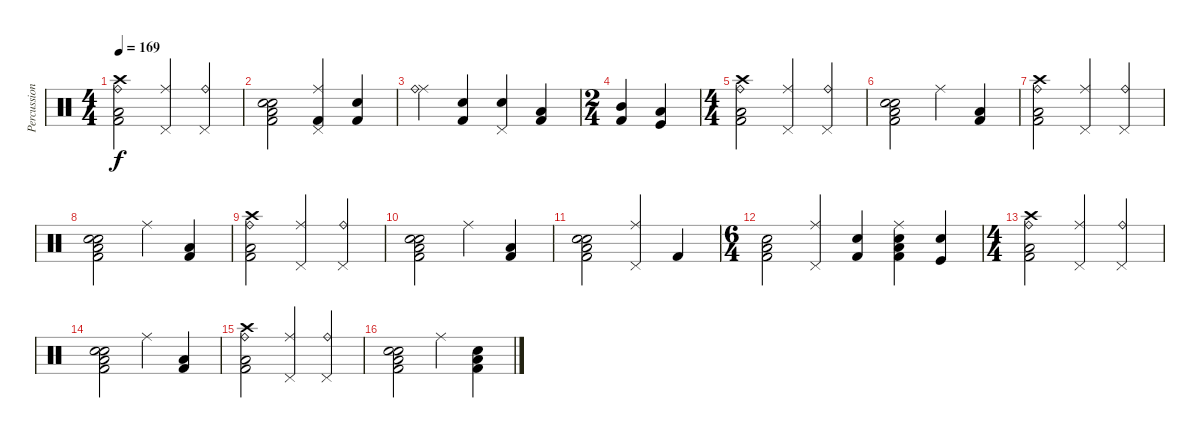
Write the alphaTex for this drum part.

\track ("Percussions" "Percussion") {instrument percussion}
\staff {score}
\articulation defaults
\ts (4 4)
\tempo 169
\clef neutral
\ks c
("Ride (bell)" "Crash high (hit)" "Low Tom (hit)" "Kick (hit) 2").2{dy f} ("Ride (middle)" "Pedal Hi-Hat (hit)").4 ("Pedal Hi-Hat (hit)" "Ride (bell)").4 |
("Kick (hit) 2" "Low Tom (hit)" "Snare (hit) 2" "Electric Snare (hit)").2 ("Ride (middle)" "Pedal Hi-Hat (hit)" "Kick (hit) 2").4 ("Kick (hit) 2" "Electric Snare (hit)").4 |
("Ride (middle)" "Ride (bell)").4 ("Kick (hit) 2" "Electric Snare (hit)").4 ("Pedal Hi-Hat (hit)" "Snare (hit) 2").4 ("Low Tom (hit)" "Kick (hit) 2").4 |
\ts (2 4)
("Mid Tom (hit)" "Kick (hit) 2").4 ("Low Tom (hit)" "Kick (hit)").4 |
\ts (4 4)
("Ride (bell)" "Crash high (hit)" "Low Tom (hit)" "Kick (hit) 2").2 ("Ride (middle)" "Pedal Hi-Hat (hit)").4 ("Pedal Hi-Hat (hit)" "Ride (bell)").4 |
("Kick (hit) 2" "Low Tom (hit)" "Snare (hit) 2" "Electric Snare (hit)").2 "Ride (middle)".4 ("Low Tom (hit)" "Kick (hit) 2").4 |
("Ride (bell)" "Crash high (hit)" "Low Tom (hit)" "Kick (hit) 2").2 ("Ride (middle)" "Pedal Hi-Hat (hit)").4 ("Pedal Hi-Hat (hit)" "Ride (bell)").4 |
("Kick (hit) 2" "Low Tom (hit)" "Snare (hit) 2" "Electric Snare (hit)").2 "Ride (middle)".4 ("Low Tom (hit)" "Kick (hit) 2").4 |
("Ride (bell)" "Crash high (hit)" "Low Tom (hit)" "Kick (hit) 2").2 ("Ride (middle)" "Pedal Hi-Hat (hit)").4 ("Pedal Hi-Hat (hit)" "Ride (bell)").4 |
("Kick (hit) 2" "Low Tom (hit)" "Snare (hit) 2" "Electric Snare (hit)").2 "Ride (middle)".4 ("Low Tom (hit)" "Kick (hit) 2").4 |
("Snare (hit) 2" "Electric Snare (hit)" "Low Tom (hit)" "Kick (hit) 2").2 ("Ride (middle)" "Pedal Hi-Hat (hit)").4 "Kick (hit) 2".4 |
\ts (6 4)
("Kick (hit) 2" "Low Tom (hit)" "Snare (hit) 2").2 ("Pedal Hi-Hat (hit)" "Ride (middle)").4 ("Electric Snare (hit)" "Kick (hit) 2").4 ("Kick (hit) 2" "Low Tom (hit)" "Snare (hit) 2" "Ride (middle)").4 ("Electric Snare (hit)" "Kick (hit)").4 |
\ts (4 4)
("Ride (bell)" "Crash high (hit)" "Low Tom (hit)" "Kick (hit) 2").2 ("Ride (middle)" "Pedal Hi-Hat (hit)").4 ("Pedal Hi-Hat (hit)" "Ride (bell)").4 |
("Kick (hit) 2" "Low Tom (hit)" "Snare (hit) 2" "Electric Snare (hit)").2 "Ride (middle)".4 ("Low Tom (hit)" "Kick (hit) 2").4 |
("Ride (bell)" "Crash high (hit)" "Low Tom (hit)" "Kick (hit) 2").2 ("Ride (middle)" "Pedal Hi-Hat (hit)").4 ("Pedal Hi-Hat (hit)" "Ride (bell)").4 |
("Kick (hit) 2" "Low Tom (hit)" "Snare (hit) 2" "Electric Snare (hit)").2 "Ride (middle)".4 ("Snare (hit) 2" "Low Tom (hit)" "Kick (hit) 2").4
